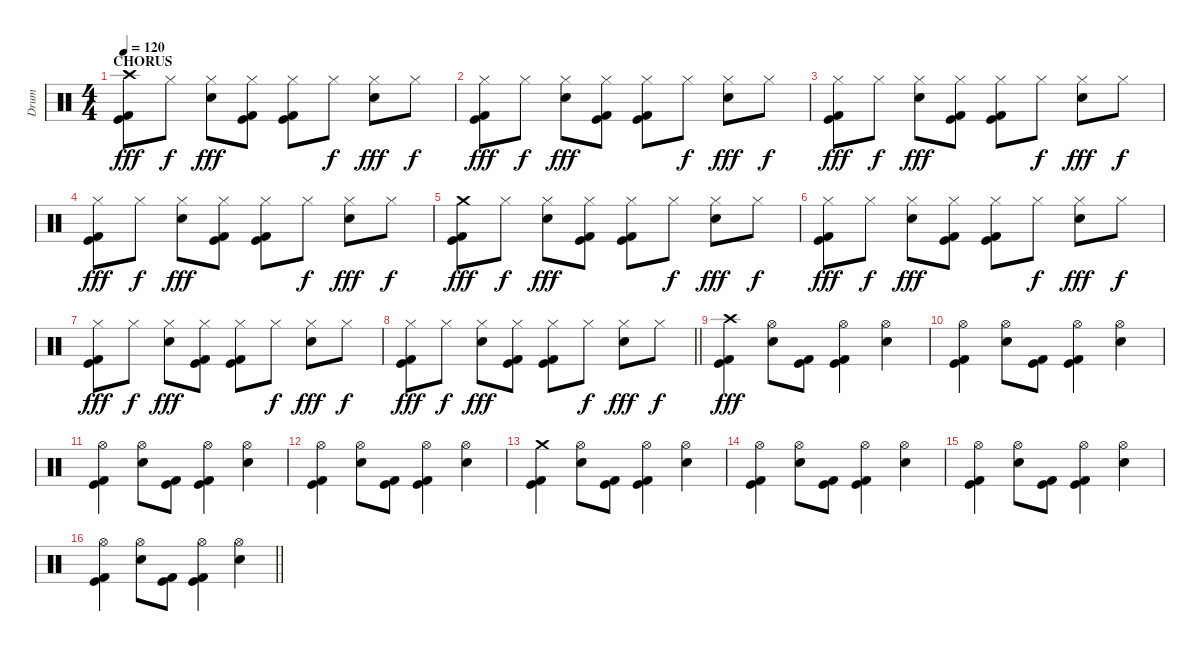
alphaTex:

\track ("Drum" "Drum") {instrument percussion}
\staff {score}
\articulation defaults
\ts (4 4)
\section ("" "CHORUS")
\tempo 120
\clef neutral
\ks c
("Kick (hit)" "Kick (hit) 2" "Crash high (hit)").8{dy fff} "Hi-Hat (closed)".8{dy f} ("Snare (hit) 2" "Hi-Hat (closed)").8{dy fff} ("Kick (hit)" "Kick (hit) 2" "Hi-Hat (closed)").8 ("Kick (hit)" "Kick (hit) 2" "Hi-Hat (closed)").8 "Hi-Hat (closed)".8{dy f} ("Snare (hit) 2" "Hi-Hat (closed)").8{dy fff} "Hi-Hat (closed)".8{dy f} |
("Kick (hit)" "Kick (hit) 2" "Hi-Hat (closed)").8{dy fff} "Hi-Hat (closed)".8{dy f} ("Snare (hit) 2" "Hi-Hat (closed)").8{dy fff} ("Kick (hit)" "Kick (hit) 2" "Hi-Hat (closed)").8 ("Kick (hit)" "Kick (hit) 2" "Hi-Hat (closed)").8 "Hi-Hat (closed)".8{dy f} ("Snare (hit) 2" "Hi-Hat (closed)").8{dy fff} "Hi-Hat (closed)".8{dy f} |
("Kick (hit)" "Kick (hit) 2" "Hi-Hat (closed)").8{dy fff} "Hi-Hat (closed)".8{dy f} ("Snare (hit) 2" "Hi-Hat (closed)").8{dy fff} ("Kick (hit)" "Kick (hit) 2" "Hi-Hat (closed)").8 ("Kick (hit)" "Kick (hit) 2" "Hi-Hat (closed)").8 "Hi-Hat (closed)".8{dy f} ("Snare (hit) 2" "Hi-Hat (closed)").8{dy fff} "Hi-Hat (closed)".8{dy f} |
("Kick (hit)" "Kick (hit) 2" "Hi-Hat (closed)").8{dy fff} "Hi-Hat (closed)".8{dy f} ("Snare (hit) 2" "Hi-Hat (closed)").8{dy fff} ("Kick (hit)" "Kick (hit) 2" "Hi-Hat (closed)").8 ("Kick (hit)" "Kick (hit) 2" "Hi-Hat (closed)").8 "Hi-Hat (closed)".8{dy f} ("Snare (hit) 2" "Hi-Hat (closed)").8{dy fff} "Hi-Hat (closed)".8{dy f} |
("Kick (hit)" "Kick (hit) 2" "Crash medium (hit)").8{dy fff} "Hi-Hat (closed)".8{dy f} ("Snare (hit) 2" "Hi-Hat (closed)").8{dy fff} ("Kick (hit)" "Kick (hit) 2" "Hi-Hat (closed)").8 ("Kick (hit)" "Kick (hit) 2" "Hi-Hat (closed)").8 "Hi-Hat (closed)".8{dy f} ("Snare (hit) 2" "Hi-Hat (closed)").8{dy fff} "Hi-Hat (closed)".8{dy f} |
("Kick (hit)" "Kick (hit) 2" "Hi-Hat (closed)").8{dy fff} "Hi-Hat (closed)".8{dy f} ("Snare (hit) 2" "Hi-Hat (closed)").8{dy fff} ("Kick (hit)" "Kick (hit) 2" "Hi-Hat (closed)").8 ("Kick (hit)" "Kick (hit) 2" "Hi-Hat (closed)").8 "Hi-Hat (closed)".8{dy f} ("Snare (hit) 2" "Hi-Hat (closed)").8{dy fff} "Hi-Hat (closed)".8{dy f} |
("Kick (hit)" "Kick (hit) 2" "Hi-Hat (closed)").8{dy fff} "Hi-Hat (closed)".8{dy f} ("Snare (hit) 2" "Hi-Hat (closed)").8{dy fff} ("Kick (hit)" "Kick (hit) 2" "Hi-Hat (closed)").8 ("Kick (hit)" "Kick (hit) 2" "Hi-Hat (closed)").8 "Hi-Hat (closed)".8{dy f} ("Snare (hit) 2" "Hi-Hat (closed)").8{dy fff} "Hi-Hat (closed)".8{dy f} |
\barLineRight lightlight
("Kick (hit)" "Kick (hit) 2" "Hi-Hat (closed)").8{dy fff} "Hi-Hat (closed)".8{dy f} ("Snare (hit) 2" "Hi-Hat (closed)").8{dy fff} ("Kick (hit)" "Kick (hit) 2" "Hi-Hat (closed)").8 ("Kick (hit)" "Kick (hit) 2" "Hi-Hat (closed)").8 "Hi-Hat (closed)".8{dy f} ("Snare (hit) 2" "Hi-Hat (closed)").8{dy fff} "Hi-Hat (closed)".8{dy f} |
("Kick (hit)" "Kick (hit) 2" "Crash high (hit)").4{dy fff} ("Snare (hit) 2" "Hi-Hat (open)").8 ("Kick (hit)" "Kick (hit) 2").8 ("Kick (hit)" "Kick (hit) 2" "Hi-Hat (open)").4 ("Snare (hit) 2" "Hi-Hat (open)").4 |
("Kick (hit)" "Kick (hit) 2" "Hi-Hat (open)").4 ("Snare (hit) 2" "Hi-Hat (open)").8 ("Kick (hit)" "Kick (hit) 2").8 ("Kick (hit)" "Kick (hit) 2" "Hi-Hat (open)").4 ("Snare (hit) 2" "Hi-Hat (open)").4 |
("Kick (hit)" "Kick (hit) 2" "Hi-Hat (open)").4 ("Snare (hit) 2" "Hi-Hat (open)").8 ("Kick (hit)" "Kick (hit) 2").8 ("Kick (hit)" "Kick (hit) 2" "Hi-Hat (open)").4 ("Snare (hit) 2" "Hi-Hat (open)").4 |
("Kick (hit)" "Kick (hit) 2" "Hi-Hat (open)").4 ("Snare (hit) 2" "Hi-Hat (open)").8 ("Kick (hit)" "Kick (hit) 2").8 ("Kick (hit)" "Kick (hit) 2" "Hi-Hat (open)").4 ("Snare (hit) 2" "Hi-Hat (open)").4 |
("Kick (hit)" "Kick (hit) 2" "Crash medium (hit)").4 ("Snare (hit) 2" "Hi-Hat (open)").8 ("Kick (hit)" "Kick (hit) 2").8 ("Kick (hit)" "Kick (hit) 2" "Hi-Hat (open)").4 ("Snare (hit) 2" "Hi-Hat (open)").4 |
("Kick (hit)" "Kick (hit) 2" "Hi-Hat (open)").4 ("Snare (hit) 2" "Hi-Hat (open)").8 ("Kick (hit)" "Kick (hit) 2").8 ("Kick (hit)" "Kick (hit) 2" "Hi-Hat (open)").4 ("Snare (hit) 2" "Hi-Hat (open)").4 |
("Kick (hit)" "Kick (hit) 2" "Hi-Hat (open)").4 ("Snare (hit) 2" "Hi-Hat (open)").8 ("Kick (hit)" "Kick (hit) 2").8 ("Kick (hit)" "Kick (hit) 2" "Hi-Hat (open)").4 ("Snare (hit) 2" "Hi-Hat (open)").4 |
\barLineRight lightlight
("Kick (hit)" "Kick (hit) 2" "Hi-Hat (open)").4 ("Snare (hit) 2" "Hi-Hat (open)").8 ("Kick (hit)" "Kick (hit) 2").8 ("Kick (hit)" "Kick (hit) 2" "Hi-Hat (open)").4 ("Snare (hit) 2" "Hi-Hat (open)").4
